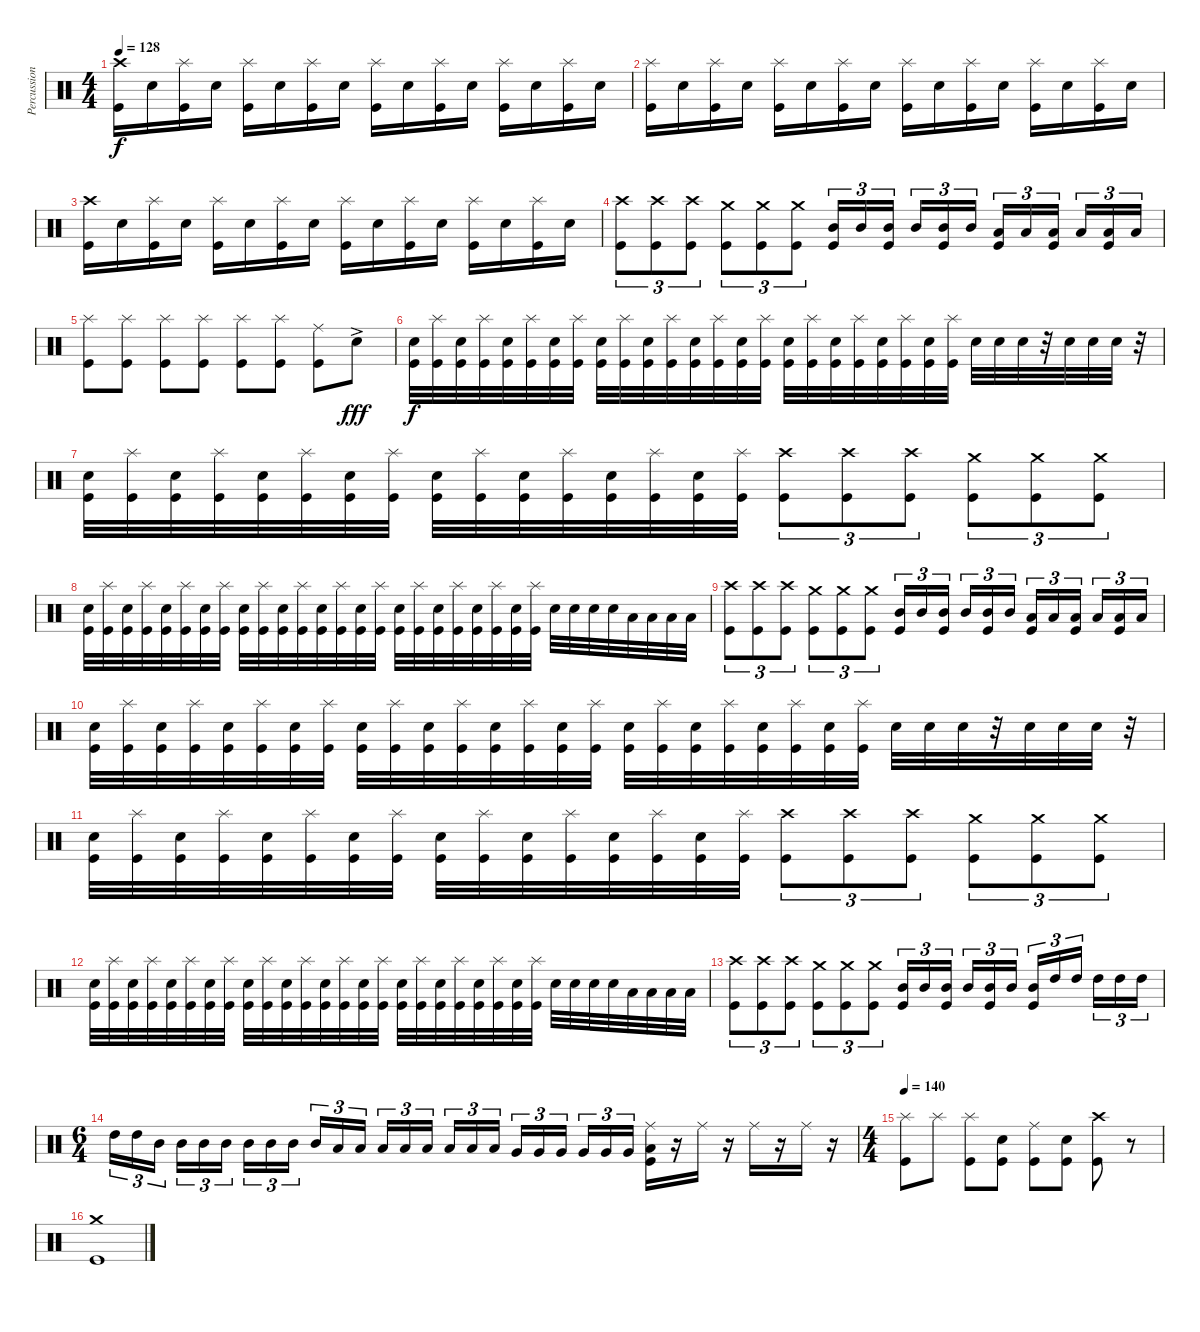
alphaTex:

\track ("Percussion" "Percussion") {instrument percussion}
\staff {score}
\articulation defaults
\ts (4 4)
\tempo 128
\clef neutral
\ks c
("Crash high (hit)" "Kick (hit)").16{dy f} "Electric Snare (hit)".16 ("Splash (hit)" "Kick (hit)").16 "Electric Snare (hit)".16 ("Splash (hit)" "Kick (hit)").16 "Electric Snare (hit)".16 ("Splash (hit)" "Kick (hit)").16 "Electric Snare (hit)".16 ("Splash (hit)" "Kick (hit)").16 "Electric Snare (hit)".16 ("Splash (hit)" "Kick (hit)").16 "Electric Snare (hit)".16 ("Splash (hit)" "Kick (hit)").16 "Electric Snare (hit)".16 ("Splash (hit)" "Kick (hit)").16 "Electric Snare (hit)".16 |
("Splash (hit)" "Kick (hit)").16 "Electric Snare (hit)".16 ("Splash (hit)" "Kick (hit)").16 "Electric Snare (hit)".16 ("Splash (hit)" "Kick (hit)").16 "Electric Snare (hit)".16 ("Splash (hit)" "Kick (hit)").16 "Electric Snare (hit)".16 ("Splash (hit)" "Kick (hit)").16 "Electric Snare (hit)".16 ("Splash (hit)" "Kick (hit)").16 "Electric Snare (hit)".16 ("Splash (hit)" "Kick (hit)").16 "Electric Snare (hit)".16 ("Splash (hit)" "Kick (hit)").16 "Electric Snare (hit)".16 |
("Crash high (hit)" "Kick (hit)").16 "Electric Snare (hit)".16 ("Splash (hit)" "Kick (hit)").16 "Electric Snare (hit)".16 ("Splash (hit)" "Kick (hit)").16 "Electric Snare (hit)".16 ("Splash (hit)" "Kick (hit)").16 "Electric Snare (hit)".16 ("Splash (hit)" "Kick (hit)").16 "Electric Snare (hit)".16 ("Splash (hit)" "Kick (hit)").16 "Electric Snare (hit)".16 ("Splash (hit)" "Kick (hit)").16 "Electric Snare (hit)".16 ("Splash (hit)" "Kick (hit)").16 "Electric Snare (hit)".16 |
("Crash high (hit)" "Kick (hit)").8{tu (3 2)} ("Crash high (hit)" "Kick (hit)").8{tu (3 2)} ("Crash high (hit)" "Kick (hit)").8{tu (3 2)} ("Crash medium (hit)" "Kick (hit)").8{tu (3 2)} ("Crash medium (hit)" "Kick (hit)").8{tu (3 2)} ("Crash medium (hit)" "Kick (hit)").8{tu (3 2)} ("Mid Tom (hit)" "Kick (hit)").16{tu (3 2)} "Mid Tom (hit)".16{tu (3 2)} ("Mid Tom (hit)" "Kick (hit)").16{tu (3 2)} "Mid Tom (hit)".16{tu (3 2)} ("Mid Tom (hit)" "Kick (hit)").16{tu (3 2)} "Mid Tom (hit)".16{tu (3 2)} ("Low Tom (hit)" "Kick (hit)").16{tu (3 2)} "Low Tom (hit)".16{tu (3 2)} ("Low Tom (hit)" "Kick (hit)").16{tu (3 2)} "Low Tom (hit)".16{tu (3 2)} ("Low Tom (hit)" "Kick (hit)").16{tu (3 2)} "Low Tom (hit)".16{tu (3 2)} |
("Splash (hit)" "Kick (hit)").8 ("Splash (hit)" "Kick (hit)").8 ("Splash (hit)" "Kick (hit)").8 ("Splash (hit)" "Kick (hit)").8 ("Splash (hit)" "Kick (hit)").8 ("Splash (hit)" "Kick (hit)").8 ("Ride (middle)" "Kick (hit)").8 "Electric Snare (hit)"{ac}.8{dy fff} |
("Electric Snare (hit)" "Kick (hit)").32{dy f} ("Splash (hit)" "Kick (hit)").32 ("Electric Snare (hit)" "Kick (hit)").32 ("Splash (hit)" "Kick (hit)").32 ("Electric Snare (hit)" "Kick (hit)").32 ("Splash (hit)" "Kick (hit)").32 ("Electric Snare (hit)" "Kick (hit)").32 ("Splash (hit)" "Kick (hit)").32 ("Electric Snare (hit)" "Kick (hit)").32 ("Splash (hit)" "Kick (hit)").32 ("Electric Snare (hit)" "Kick (hit)").32 ("Splash (hit)" "Kick (hit)").32 ("Electric Snare (hit)" "Kick (hit)").32 ("Splash (hit)" "Kick (hit)").32 ("Electric Snare (hit)" "Kick (hit)").32 ("Splash (hit)" "Kick (hit)").32 ("Electric Snare (hit)" "Kick (hit)").32 ("Splash (hit)" "Kick (hit)").32 ("Electric Snare (hit)" "Kick (hit)").32 ("Splash (hit)" "Kick (hit)").32 ("Electric Snare (hit)" "Kick (hit)").32 ("Splash (hit)" "Kick (hit)").32 ("Electric Snare (hit)" "Kick (hit)").32 ("Splash (hit)" "Kick (hit)").32 "Electric Snare (hit)".32 "Electric Snare (hit)".32 "Electric Snare (hit)".32 r.32 "Electric Snare (hit)".32 "Electric Snare (hit)".32 "Electric Snare (hit)".32 r.32 |
("Electric Snare (hit)" "Kick (hit)").32 ("Splash (hit)" "Kick (hit)").32 ("Electric Snare (hit)" "Kick (hit)").32 ("Splash (hit)" "Kick (hit)").32 ("Electric Snare (hit)" "Kick (hit)").32 ("Splash (hit)" "Kick (hit)").32 ("Electric Snare (hit)" "Kick (hit)").32 ("Splash (hit)" "Kick (hit)").32 ("Electric Snare (hit)" "Kick (hit)").32 ("Splash (hit)" "Kick (hit)").32 ("Electric Snare (hit)" "Kick (hit)").32 ("Splash (hit)" "Kick (hit)").32 ("Electric Snare (hit)" "Kick (hit)").32 ("Splash (hit)" "Kick (hit)").32 ("Electric Snare (hit)" "Kick (hit)").32 ("Splash (hit)" "Kick (hit)").32 ("Crash high (hit)" "Kick (hit)").8{tu (3 2)} ("Crash high (hit)" "Kick (hit)").8{tu (3 2)} ("Crash high (hit)" "Kick (hit)").8{tu (3 2)} ("Crash medium (hit)" "Kick (hit)").8{tu (3 2)} ("Crash medium (hit)" "Kick (hit)").8{tu (3 2)} ("Crash medium (hit)" "Kick (hit)").8{tu (3 2)} |
("Electric Snare (hit)" "Kick (hit)").32 ("Splash (hit)" "Kick (hit)").32 ("Electric Snare (hit)" "Kick (hit)").32 ("Splash (hit)" "Kick (hit)").32 ("Electric Snare (hit)" "Kick (hit)").32 ("Splash (hit)" "Kick (hit)").32 ("Electric Snare (hit)" "Kick (hit)").32 ("Splash (hit)" "Kick (hit)").32 ("Electric Snare (hit)" "Kick (hit)").32 ("Splash (hit)" "Kick (hit)").32 ("Electric Snare (hit)" "Kick (hit)").32 ("Splash (hit)" "Kick (hit)").32 ("Electric Snare (hit)" "Kick (hit)").32 ("Splash (hit)" "Kick (hit)").32 ("Electric Snare (hit)" "Kick (hit)").32 ("Splash (hit)" "Kick (hit)").32 ("Electric Snare (hit)" "Kick (hit)").32 ("Splash (hit)" "Kick (hit)").32 ("Electric Snare (hit)" "Kick (hit)").32 ("Splash (hit)" "Kick (hit)").32 ("Electric Snare (hit)" "Kick (hit)").32 ("Splash (hit)" "Kick (hit)").32 ("Electric Snare (hit)" "Kick (hit)").32 ("Splash (hit)" "Kick (hit)").32 "Electric Snare (hit)".32 "Electric Snare (hit)".32 "Electric Snare (hit)".32 "Electric Snare (hit)".32 "Low Tom (hit)".32 "Low Tom (hit)".32 "Low Tom (hit)".32 "Low Tom (hit)".32 |
("Crash high (hit)" "Kick (hit)").8{tu (3 2)} ("Crash high (hit)" "Kick (hit)").8{tu (3 2)} ("Crash high (hit)" "Kick (hit)").8{tu (3 2)} ("Crash medium (hit)" "Kick (hit)").8{tu (3 2)} ("Crash medium (hit)" "Kick (hit)").8{tu (3 2)} ("Crash medium (hit)" "Kick (hit)").8{tu (3 2)} ("Mid Tom (hit)" "Kick (hit)").16{tu (3 2)} "Mid Tom (hit)".16{tu (3 2)} ("Mid Tom (hit)" "Kick (hit)").16{tu (3 2)} "Mid Tom (hit)".16{tu (3 2)} ("Mid Tom (hit)" "Kick (hit)").16{tu (3 2)} "Mid Tom (hit)".16{tu (3 2)} ("Low Tom (hit)" "Kick (hit)").16{tu (3 2)} "Low Tom (hit)".16{tu (3 2)} ("Low Tom (hit)" "Kick (hit)").16{tu (3 2)} "Low Tom (hit)".16{tu (3 2)} ("Low Tom (hit)" "Kick (hit)").16{tu (3 2)} "Low Tom (hit)".16{tu (3 2)} |
("Electric Snare (hit)" "Kick (hit)").32 ("Splash (hit)" "Kick (hit)").32 ("Electric Snare (hit)" "Kick (hit)").32 ("Splash (hit)" "Kick (hit)").32 ("Electric Snare (hit)" "Kick (hit)").32 ("Splash (hit)" "Kick (hit)").32 ("Electric Snare (hit)" "Kick (hit)").32 ("Splash (hit)" "Kick (hit)").32 ("Electric Snare (hit)" "Kick (hit)").32 ("Splash (hit)" "Kick (hit)").32 ("Electric Snare (hit)" "Kick (hit)").32 ("Splash (hit)" "Kick (hit)").32 ("Electric Snare (hit)" "Kick (hit)").32 ("Splash (hit)" "Kick (hit)").32 ("Electric Snare (hit)" "Kick (hit)").32 ("Splash (hit)" "Kick (hit)").32 ("Electric Snare (hit)" "Kick (hit)").32 ("Splash (hit)" "Kick (hit)").32 ("Electric Snare (hit)" "Kick (hit)").32 ("Splash (hit)" "Kick (hit)").32 ("Electric Snare (hit)" "Kick (hit)").32 ("Splash (hit)" "Kick (hit)").32 ("Electric Snare (hit)" "Kick (hit)").32 ("Splash (hit)" "Kick (hit)").32 "Electric Snare (hit)".32 "Electric Snare (hit)".32 "Electric Snare (hit)".32 r.32 "Electric Snare (hit)".32 "Electric Snare (hit)".32 "Electric Snare (hit)".32 r.32 |
("Electric Snare (hit)" "Kick (hit)").32 ("Splash (hit)" "Kick (hit)").32 ("Electric Snare (hit)" "Kick (hit)").32 ("Splash (hit)" "Kick (hit)").32 ("Electric Snare (hit)" "Kick (hit)").32 ("Splash (hit)" "Kick (hit)").32 ("Electric Snare (hit)" "Kick (hit)").32 ("Splash (hit)" "Kick (hit)").32 ("Electric Snare (hit)" "Kick (hit)").32 ("Splash (hit)" "Kick (hit)").32 ("Electric Snare (hit)" "Kick (hit)").32 ("Splash (hit)" "Kick (hit)").32 ("Electric Snare (hit)" "Kick (hit)").32 ("Splash (hit)" "Kick (hit)").32 ("Electric Snare (hit)" "Kick (hit)").32 ("Splash (hit)" "Kick (hit)").32 ("Crash high (hit)" "Kick (hit)").8{tu (3 2)} ("Crash high (hit)" "Kick (hit)").8{tu (3 2)} ("Crash high (hit)" "Kick (hit)").8{tu (3 2)} ("Crash medium (hit)" "Kick (hit)").8{tu (3 2)} ("Crash medium (hit)" "Kick (hit)").8{tu (3 2)} ("Crash medium (hit)" "Kick (hit)").8{tu (3 2)} |
("Electric Snare (hit)" "Kick (hit)").32 ("Splash (hit)" "Kick (hit)").32 ("Electric Snare (hit)" "Kick (hit)").32 ("Splash (hit)" "Kick (hit)").32 ("Electric Snare (hit)" "Kick (hit)").32 ("Splash (hit)" "Kick (hit)").32 ("Electric Snare (hit)" "Kick (hit)").32 ("Splash (hit)" "Kick (hit)").32 ("Electric Snare (hit)" "Kick (hit)").32 ("Splash (hit)" "Kick (hit)").32 ("Electric Snare (hit)" "Kick (hit)").32 ("Splash (hit)" "Kick (hit)").32 ("Electric Snare (hit)" "Kick (hit)").32 ("Splash (hit)" "Kick (hit)").32 ("Electric Snare (hit)" "Kick (hit)").32 ("Splash (hit)" "Kick (hit)").32 ("Electric Snare (hit)" "Kick (hit)").32 ("Splash (hit)" "Kick (hit)").32 ("Electric Snare (hit)" "Kick (hit)").32 ("Splash (hit)" "Kick (hit)").32 ("Electric Snare (hit)" "Kick (hit)").32 ("Splash (hit)" "Kick (hit)").32 ("Electric Snare (hit)" "Kick (hit)").32 ("Splash (hit)" "Kick (hit)").32 "Electric Snare (hit)".32 "Electric Snare (hit)".32 "Electric Snare (hit)".32 "Electric Snare (hit)".32 "Low Tom (hit)".32 "Low Tom (hit)".32 "Low Tom (hit)".32 "Low Tom (hit)".32 |
("Crash high (hit)" "Kick (hit)").8{tu (3 2)} ("Crash high (hit)" "Kick (hit)").8{tu (3 2)} ("Crash high (hit)" "Kick (hit)").8{tu (3 2)} ("Crash medium (hit)" "Kick (hit)").8{tu (3 2)} ("Crash medium (hit)" "Kick (hit)").8{tu (3 2)} ("Crash medium (hit)" "Kick (hit)").8{tu (3 2)} ("Mid Tom (hit)" "Kick (hit)").16{tu (3 2)} "Mid Tom (hit)".16{tu (3 2)} ("Mid Tom (hit)" "Kick (hit)").16{tu (3 2)} "Mid Tom (hit)".16{tu (3 2)} ("Mid Tom (hit)" "Kick (hit)").16{tu (3 2)} "Mid Tom (hit)".16{tu (3 2)} ("Mid Tom (hit)" "Kick (hit)").16{tu (3 2)} "High Tom (hit)".16{tu (3 2)} "High Tom (hit)".16{tu (3 2)} "High Tom (hit)".16{tu (3 2)} "High Tom (hit)".16{tu (3 2)} "High Tom (hit)".16{tu (3 2)} |
\ts (6 4)
"High Tom (hit)".16{tu (3 2)} "High Tom (hit)".16{tu (3 2)} "Mid Tom (hit)".16{tu (3 2)} "Mid Tom (hit)".16{tu (3 2)} "Mid Tom (hit)".16{tu (3 2)} "Mid Tom (hit)".16{tu (3 2)} "Mid Tom (hit)".16{tu (3 2)} "Mid Tom (hit)".16{tu (3 2)} "Mid Tom (hit)".16{tu (3 2)} "Mid Tom (hit)".16{tu (3 2)} "Low Tom (hit)".16{tu (3 2)} "Low Tom (hit)".16{tu (3 2)} "Low Tom (hit)".16{tu (3 2)} "Low Tom (hit)".16{tu (3 2)} "Low Tom (hit)".16{tu (3 2)} "Low Tom (hit)".16{tu (3 2)} "Low Tom (hit)".16{tu (3 2)} "Low Tom (hit)".16{tu (3 2)} "Very Low Tom (hit)".16{tu (3 2)} "Very Low Tom (hit)".16{tu (3 2)} "Very Low Tom (hit)".16{tu (3 2)} "Very Low Tom (hit)".16{tu (3 2)} "Very Low Tom (hit)".16{tu (3 2)} "Very Low Tom (hit)".16{tu (3 2)} ("Ride (middle)" "Low Floor Tom (hit)" "Kick (hit)").16 r.16 "Ride (middle)".16 r.16 "Ride (middle)".16 r.16 "Ride (middle)".16 r.16 |
\ts (4 4)
\tempo 140
("Splash (hit)" "Kick (hit)").8 "Splash (hit)".8 ("Splash (hit)" "Kick (hit)").8 ("Electric Snare (hit)" "Kick (hit)").8 ("Ride (middle)" "Kick (hit)").8 ("Electric Snare (hit)" "Kick (hit)").8 ("Crash high (hit)" "Kick (hit)").8 r.8 |
("Crash medium (hit)" "Kick (hit)").1
